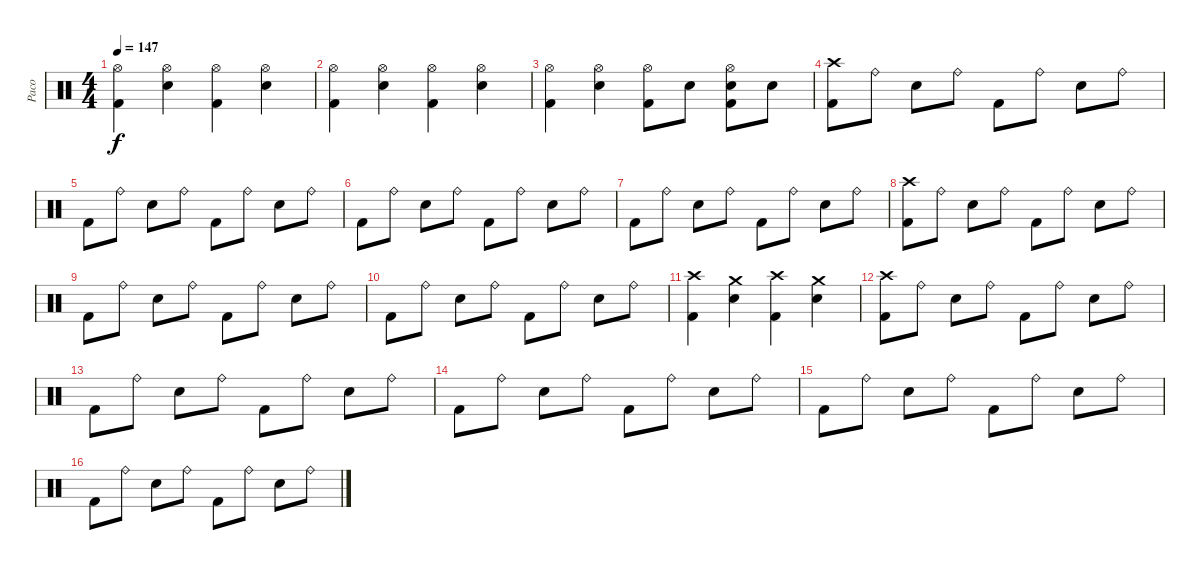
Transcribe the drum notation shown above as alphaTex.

\track ("Paco" "Paco") {instrument percussion}
\staff {score}
\articulation defaults
\ts (4 4)
\tempo 147
\clef neutral
\ks c
("Hi-Hat (open)" "Kick (hit) 2").4{dy f} ("Hi-Hat (open)" "Snare (hit) 2").4 ("Hi-Hat (open)" "Kick (hit) 2").4 ("Hi-Hat (open)" "Snare (hit) 2").4 |
("Hi-Hat (open)" "Kick (hit) 2").4 ("Hi-Hat (open)" "Snare (hit) 2").4 ("Hi-Hat (open)" "Kick (hit) 2").4 ("Hi-Hat (open)" "Snare (hit) 2").4 |
("Hi-Hat (open)" "Kick (hit) 2").4 ("Hi-Hat (open)" "Snare (hit) 2").4 ("Hi-Hat (open)" "Kick (hit) 2").8 "Snare (hit) 2".8 ("Hi-Hat (open)" "Snare (hit) 2" "Kick (hit) 2").8 "Snare (hit) 2".8 |
("Crash high (hit)" "Kick (hit) 2").8 "Ride (bell)".8 "Snare (hit) 2".8 "Ride (bell)".8 "Kick (hit) 2".8 "Ride (bell)".8 "Snare (hit) 2".8 "Ride (bell)".8 |
"Kick (hit) 2".8 "Ride (bell)".8 "Snare (hit) 2".8 "Ride (bell)".8 "Kick (hit) 2".8 "Ride (bell)".8 "Snare (hit) 2".8 "Ride (bell)".8 |
"Kick (hit) 2".8 "Ride (bell)".8 "Snare (hit) 2".8 "Ride (bell)".8 "Kick (hit) 2".8 "Ride (bell)".8 "Snare (hit) 2".8 "Ride (bell)".8 |
"Kick (hit) 2".8 "Ride (bell)".8 "Snare (hit) 2".8 "Ride (bell)".8 "Kick (hit) 2".8 "Ride (bell)".8 "Snare (hit) 2".8 "Ride (bell)".8 |
("Crash high (hit)" "Kick (hit) 2").8 "Ride (bell)".8 "Snare (hit) 2".8 "Ride (bell)".8 "Kick (hit) 2".8 "Ride (bell)".8 "Snare (hit) 2".8 "Ride (bell)".8 |
"Kick (hit) 2".8 "Ride (bell)".8 "Snare (hit) 2".8 "Ride (bell)".8 "Kick (hit) 2".8 "Ride (bell)".8 "Snare (hit) 2".8 "Ride (bell)".8 |
"Kick (hit) 2".8 "Ride (bell)".8 "Snare (hit) 2".8 "Ride (bell)".8 "Kick (hit) 2".8 "Ride (bell)".8 "Snare (hit) 2".8 "Ride (bell)".8 |
("Crash high (hit)" "Kick (hit) 2").4 ("Crash medium (hit)" "Snare (hit) 2").4 ("Crash high (hit)" "Kick (hit) 2").4 ("Crash medium (hit)" "Snare (hit) 2").4 |
("Crash high (hit)" "Kick (hit) 2").8 "Ride (bell)".8 "Snare (hit) 2".8 "Ride (bell)".8 "Kick (hit) 2".8 "Ride (bell)".8 "Snare (hit) 2".8 "Ride (bell)".8 |
"Kick (hit) 2".8 "Ride (bell)".8 "Snare (hit) 2".8 "Ride (bell)".8 "Kick (hit) 2".8 "Ride (bell)".8 "Snare (hit) 2".8 "Ride (bell)".8 |
"Kick (hit) 2".8 "Ride (bell)".8 "Snare (hit) 2".8 "Ride (bell)".8 "Kick (hit) 2".8 "Ride (bell)".8 "Snare (hit) 2".8 "Ride (bell)".8 |
"Kick (hit) 2".8 "Ride (bell)".8 "Snare (hit) 2".8 "Ride (bell)".8 "Kick (hit) 2".8 "Ride (bell)".8 "Snare (hit) 2".8 "Ride (bell)".8 |
"Kick (hit) 2".8 "Ride (bell)".8 "Snare (hit) 2".8 "Ride (bell)".8 "Kick (hit) 2".8 "Ride (bell)".8 "Snare (hit) 2".8 "Ride (bell)".8
